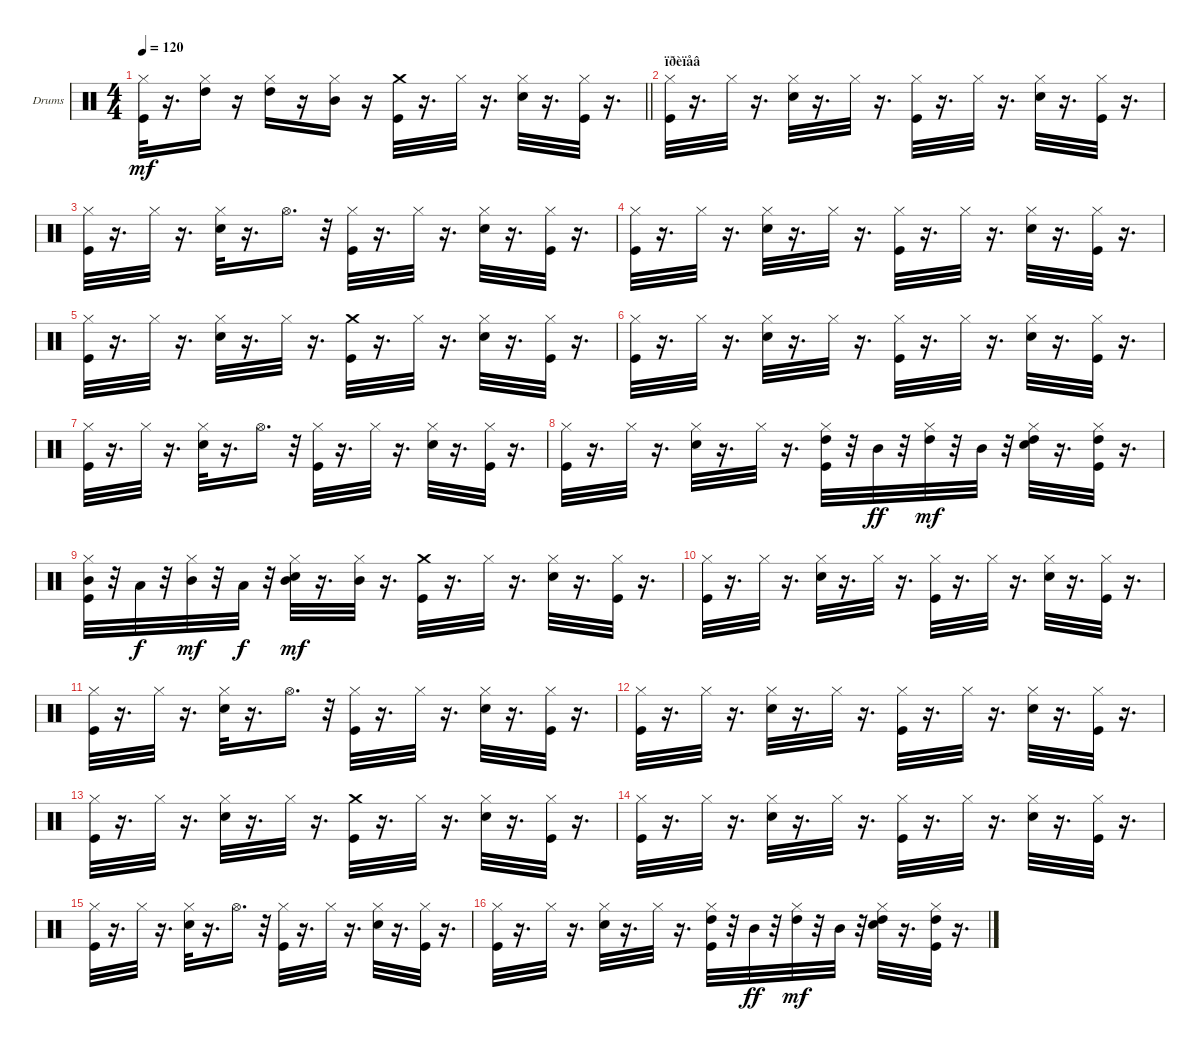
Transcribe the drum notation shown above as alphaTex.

\bracketExtendMode groupsimilarinstruments
\firstSystemTrackNameOrientation horizontal
\otherSystemsTrackNameOrientation horizontal
\track ("Drumkit" "Drums") {instrument percussion}
\staff {score}
\articulation defaults
\ts (4 4)
\tempo 120
\clef neutral
\barLineRight lightlight
\ks c
("Hi-Hat (closed)" "Kick (hit)").32{dy mf} r.16{d} ("Hi-Hat (closed)" "High Tom (hit)").16 r.16 ("Hi-Hat (closed)" "High Tom (hit)").16 r.16 ("Hi-Hat (closed)" "Mid Tom (hit)").16 r.16 ("Crash medium (hit)" "Kick (hit)").32 r.16{d} "Hi-Hat (closed)".32 r.16{d} ("Hi-Hat (closed)" "Snare (hit) 2").32 r.16{d} ("Hi-Hat (closed)" "Kick (hit)").32 r.16{d} |
\section ("" "ïðèïåâ")
("Hi-Hat (closed)" "Kick (hit)").32 r.16{d} "Hi-Hat (closed)".32 r.16{d} ("Hi-Hat (closed)" "Snare (hit) 2").32 r.16{d} "Hi-Hat (closed)".32 r.16{d} ("Hi-Hat (closed)" "Kick (hit)").32 r.16{d} "Hi-Hat (closed)".32 r.16{d} ("Hi-Hat (closed)" "Snare (hit) 2").32 r.16{d} ("Hi-Hat (closed)" "Kick (hit)").32 r.16{d} |
("Hi-Hat (closed)" "Kick (hit)").32 r.16{d} "Hi-Hat (closed)".32 r.16{d} ("Hi-Hat (closed)" "Snare (hit) 2").32 r.16{d} "Hi-Hat (open)".16{d} r.32 ("Hi-Hat (closed)" "Kick (hit)").32 r.16{d} "Hi-Hat (closed)".32 r.16{d} ("Hi-Hat (closed)" "Snare (hit) 2").32 r.16{d} ("Hi-Hat (closed)" "Kick (hit)").32 r.16{d} |
("Hi-Hat (closed)" "Kick (hit)").32 r.16{d} "Hi-Hat (closed)".32 r.16{d} ("Hi-Hat (closed)" "Snare (hit) 2").32 r.16{d} "Hi-Hat (closed)".32 r.16{d} ("Hi-Hat (closed)" "Kick (hit)").32 r.16{d} "Hi-Hat (closed)".32 r.16{d} ("Hi-Hat (closed)" "Snare (hit) 2").32 r.16{d} ("Hi-Hat (closed)" "Kick (hit)").32 r.16{d} |
("Hi-Hat (closed)" "Kick (hit)").32 r.16{d} "Hi-Hat (closed)".32 r.16{d} ("Hi-Hat (closed)" "Snare (hit) 2").32 r.16{d} "Hi-Hat (closed)".32 r.16{d} ("Crash medium (hit)" "Kick (hit)").32 r.16{d} "Hi-Hat (closed)".32 r.16{d} ("Hi-Hat (closed)" "Snare (hit) 2").32 r.16{d} ("Hi-Hat (closed)" "Kick (hit)").32 r.16{d} |
("Hi-Hat (closed)" "Kick (hit)").32 r.16{d} "Hi-Hat (closed)".32 r.16{d} ("Hi-Hat (closed)" "Snare (hit) 2").32 r.16{d} "Hi-Hat (closed)".32 r.16{d} ("Hi-Hat (closed)" "Kick (hit)").32 r.16{d} "Hi-Hat (closed)".32 r.16{d} ("Hi-Hat (closed)" "Snare (hit) 2").32 r.16{d} ("Hi-Hat (closed)" "Kick (hit)").32 r.16{d} |
("Hi-Hat (closed)" "Kick (hit)").32 r.16{d} "Hi-Hat (closed)".32 r.16{d} ("Hi-Hat (closed)" "Snare (hit) 2").32 r.16{d} "Hi-Hat (open)".16{d} r.32 ("Hi-Hat (closed)" "Kick (hit)").32 r.16{d} "Hi-Hat (closed)".32 r.16{d} ("Hi-Hat (closed)" "Snare (hit) 2").32 r.16{d} ("Hi-Hat (closed)" "Kick (hit)").32 r.16{d} |
("Hi-Hat (closed)" "Kick (hit)").32 r.16{d} "Hi-Hat (closed)".32 r.16{d} ("Hi-Hat (closed)" "Snare (hit) 2").32 r.16{d} "Hi-Hat (closed)".32 r.16{d} ("Hi-Hat (closed)" "Kick (hit)" "High Tom (hit)").32 r.32 "Mid Tom (hit)".32{dy ff} r.32 ("Hi-Hat (closed)" "High Tom (hit)").32{dy mf} r.32 "Mid Tom (hit)".32 r.32 ("Hi-Hat (closed)" "Snare (hit) 2" "High Tom (hit)").32 r.16{d} ("Hi-Hat (closed)" "Kick (hit)" "High Tom (hit)").32 r.16{d} |
("Hi-Hat (closed)" "Kick (hit)" "Mid Tom (hit)").32 r.32 "Low Tom (hit)".32{dy f} r.32 ("Hi-Hat (closed)" "Mid Tom (hit)").32{dy mf} r.32 "Low Tom (hit)".32{dy f} r.32 ("Hi-Hat (closed)" "Mid Tom (hit)" "Snare (hit) 2").32{dy mf} r.16{d} ("Hi-Hat (closed)" "Mid Tom (hit)").32 r.16{d} ("Crash medium (hit)" "Kick (hit)").32 r.16{d} "Hi-Hat (closed)".32 r.16{d} ("Hi-Hat (closed)" "Snare (hit) 2").32 r.16{d} ("Hi-Hat (closed)" "Kick (hit)").32 r.16{d} |
("Hi-Hat (closed)" "Kick (hit)").32 r.16{d} "Hi-Hat (closed)".32 r.16{d} ("Hi-Hat (closed)" "Snare (hit) 2").32 r.16{d} "Hi-Hat (closed)".32 r.16{d} ("Hi-Hat (closed)" "Kick (hit)").32 r.16{d} "Hi-Hat (closed)".32 r.16{d} ("Hi-Hat (closed)" "Snare (hit) 2").32 r.16{d} ("Hi-Hat (closed)" "Kick (hit)").32 r.16{d} |
("Hi-Hat (closed)" "Kick (hit)").32 r.16{d} "Hi-Hat (closed)".32 r.16{d} ("Hi-Hat (closed)" "Snare (hit) 2").32 r.16{d} "Hi-Hat (open)".16{d} r.32 ("Hi-Hat (closed)" "Kick (hit)").32 r.16{d} "Hi-Hat (closed)".32 r.16{d} ("Hi-Hat (closed)" "Snare (hit) 2").32 r.16{d} ("Hi-Hat (closed)" "Kick (hit)").32 r.16{d} |
("Hi-Hat (closed)" "Kick (hit)").32 r.16{d} "Hi-Hat (closed)".32 r.16{d} ("Hi-Hat (closed)" "Snare (hit) 2").32 r.16{d} "Hi-Hat (closed)".32 r.16{d} ("Hi-Hat (closed)" "Kick (hit)").32 r.16{d} "Hi-Hat (closed)".32 r.16{d} ("Hi-Hat (closed)" "Snare (hit) 2").32 r.16{d} ("Hi-Hat (closed)" "Kick (hit)").32 r.16{d} |
("Hi-Hat (closed)" "Kick (hit)").32 r.16{d} "Hi-Hat (closed)".32 r.16{d} ("Hi-Hat (closed)" "Snare (hit) 2").32 r.16{d} "Hi-Hat (closed)".32 r.16{d} ("Crash medium (hit)" "Kick (hit)").32 r.16{d} "Hi-Hat (closed)".32 r.16{d} ("Hi-Hat (closed)" "Snare (hit) 2").32 r.16{d} ("Hi-Hat (closed)" "Kick (hit)").32 r.16{d} |
("Hi-Hat (closed)" "Kick (hit)").32 r.16{d} "Hi-Hat (closed)".32 r.16{d} ("Hi-Hat (closed)" "Snare (hit) 2").32 r.16{d} "Hi-Hat (closed)".32 r.16{d} ("Hi-Hat (closed)" "Kick (hit)").32 r.16{d} "Hi-Hat (closed)".32 r.16{d} ("Hi-Hat (closed)" "Snare (hit) 2").32 r.16{d} ("Hi-Hat (closed)" "Kick (hit)").32 r.16{d} |
("Hi-Hat (closed)" "Kick (hit)").32 r.16{d} "Hi-Hat (closed)".32 r.16{d} ("Hi-Hat (closed)" "Snare (hit) 2").32 r.16{d} "Hi-Hat (open)".16{d} r.32 ("Hi-Hat (closed)" "Kick (hit)").32 r.16{d} "Hi-Hat (closed)".32 r.16{d} ("Hi-Hat (closed)" "Snare (hit) 2").32 r.16{d} ("Hi-Hat (closed)" "Kick (hit)").32 r.16{d} |
("Hi-Hat (closed)" "Kick (hit)").32 r.16{d} "Hi-Hat (closed)".32 r.16{d} ("Hi-Hat (closed)" "Snare (hit) 2").32 r.16{d} "Hi-Hat (closed)".32 r.16{d} ("Hi-Hat (closed)" "Kick (hit)" "High Tom (hit)").32 r.32 "Mid Tom (hit)".32{dy ff} r.32 ("Hi-Hat (closed)" "High Tom (hit)").32{dy mf} r.32 "Mid Tom (hit)".32 r.32 ("Hi-Hat (closed)" "Snare (hit) 2" "High Tom (hit)").32 r.16{d} ("Hi-Hat (closed)" "Kick (hit)" "High Tom (hit)").32 r.16{d}
